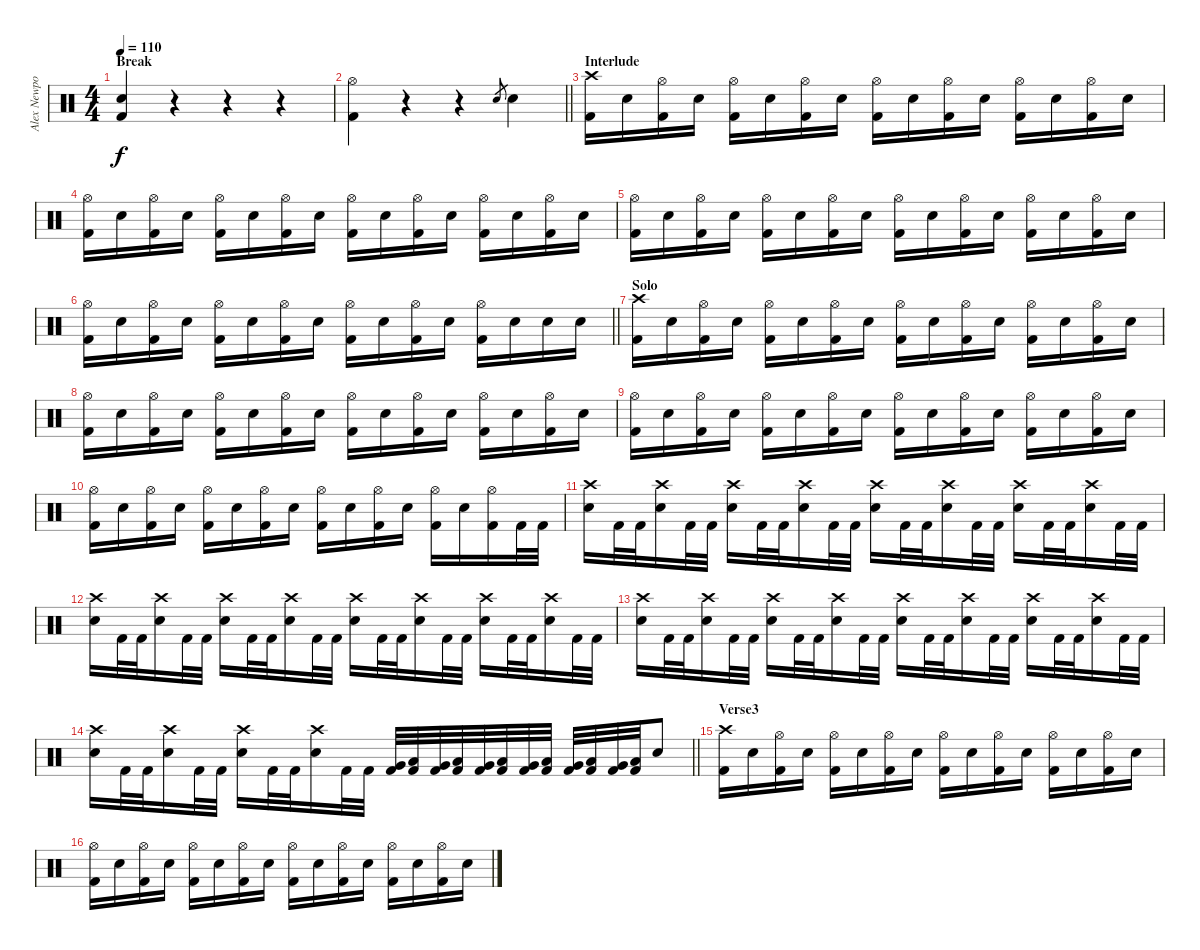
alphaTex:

\track ("Alex Newport" "Alex Newpo") {instrument percussion}
\staff {score}
\articulation defaults
\ts (4 4)
\section ("" "Break")
\tempo 110
\clef neutral
\ks c
("Electric Snare (hit)" "Kick (hit) 2").4{dy f} r.4 r.4 r.4 |
\barLineRight lightlight
("Hi-Hat (open)" "Kick (hit) 2").4 r.4 r.4 "Electric Snare (hit)".8{gr} "Electric Snare (hit)".4 |
\section ("" "Interlude")
("Crash high (hit)" "Kick (hit) 2").16 "Electric Snare (hit)".16 ("Hi-Hat (open)" "Kick (hit) 2").16 "Electric Snare (hit)".16 ("Hi-Hat (open)" "Kick (hit) 2").16 "Electric Snare (hit)".16 ("Hi-Hat (open)" "Kick (hit) 2").16 "Electric Snare (hit)".16 ("Hi-Hat (open)" "Kick (hit) 2").16 "Electric Snare (hit)".16 ("Hi-Hat (open)" "Kick (hit) 2").16 "Electric Snare (hit)".16 ("Hi-Hat (open)" "Kick (hit) 2").16 "Electric Snare (hit)".16 ("Hi-Hat (open)" "Kick (hit) 2").16 "Electric Snare (hit)".16 |
("Hi-Hat (open)" "Kick (hit) 2").16 "Electric Snare (hit)".16 ("Hi-Hat (open)" "Kick (hit) 2").16 "Electric Snare (hit)".16 ("Hi-Hat (open)" "Kick (hit) 2").16 "Electric Snare (hit)".16 ("Hi-Hat (open)" "Kick (hit) 2").16 "Electric Snare (hit)".16 ("Hi-Hat (open)" "Kick (hit) 2").16 "Electric Snare (hit)".16 ("Hi-Hat (open)" "Kick (hit) 2").16 "Electric Snare (hit)".16 ("Hi-Hat (open)" "Kick (hit) 2").16 "Electric Snare (hit)".16 ("Hi-Hat (open)" "Kick (hit) 2").16 "Electric Snare (hit)".16 |
("Hi-Hat (open)" "Kick (hit) 2").16 "Electric Snare (hit)".16 ("Hi-Hat (open)" "Kick (hit) 2").16 "Electric Snare (hit)".16 ("Hi-Hat (open)" "Kick (hit) 2").16 "Electric Snare (hit)".16 ("Hi-Hat (open)" "Kick (hit) 2").16 "Electric Snare (hit)".16 ("Hi-Hat (open)" "Kick (hit) 2").16 "Electric Snare (hit)".16 ("Hi-Hat (open)" "Kick (hit) 2").16 "Electric Snare (hit)".16 ("Hi-Hat (open)" "Kick (hit) 2").16 "Electric Snare (hit)".16 ("Hi-Hat (open)" "Kick (hit) 2").16 "Electric Snare (hit)".16 |
\barLineRight lightlight
("Hi-Hat (open)" "Kick (hit) 2").16 "Electric Snare (hit)".16 ("Hi-Hat (open)" "Kick (hit) 2").16 "Electric Snare (hit)".16 ("Hi-Hat (open)" "Kick (hit) 2").16 "Electric Snare (hit)".16 ("Hi-Hat (open)" "Kick (hit) 2").16 "Electric Snare (hit)".16 ("Hi-Hat (open)" "Kick (hit) 2").16 "Electric Snare (hit)".16 ("Hi-Hat (open)" "Kick (hit) 2").16 "Electric Snare (hit)".16 ("Hi-Hat (open)" "Kick (hit) 2").16 "Electric Snare (hit)".16 "Electric Snare (hit)".16 "Electric Snare (hit)".16 |
\section ("" "Solo")
("Crash high (hit)" "Kick (hit) 2").16 "Electric Snare (hit)".16 ("Hi-Hat (open)" "Kick (hit) 2").16 "Electric Snare (hit)".16 ("Hi-Hat (open)" "Kick (hit) 2").16 "Electric Snare (hit)".16 ("Hi-Hat (open)" "Kick (hit) 2").16 "Electric Snare (hit)".16 ("Hi-Hat (open)" "Kick (hit) 2").16 "Electric Snare (hit)".16 ("Hi-Hat (open)" "Kick (hit) 2").16 "Electric Snare (hit)".16 ("Hi-Hat (open)" "Kick (hit) 2").16 "Electric Snare (hit)".16 ("Hi-Hat (open)" "Kick (hit) 2").16 "Electric Snare (hit)".16 |
("Hi-Hat (open)" "Kick (hit) 2").16 "Electric Snare (hit)".16 ("Hi-Hat (open)" "Kick (hit) 2").16 "Electric Snare (hit)".16 ("Hi-Hat (open)" "Kick (hit) 2").16 "Electric Snare (hit)".16 ("Hi-Hat (open)" "Kick (hit) 2").16 "Electric Snare (hit)".16 ("Hi-Hat (open)" "Kick (hit) 2").16 "Electric Snare (hit)".16 ("Hi-Hat (open)" "Kick (hit) 2").16 "Electric Snare (hit)".16 ("Hi-Hat (open)" "Kick (hit) 2").16 "Electric Snare (hit)".16 ("Hi-Hat (open)" "Kick (hit) 2").16 "Electric Snare (hit)".16 |
("Hi-Hat (open)" "Kick (hit) 2").16 "Electric Snare (hit)".16 ("Hi-Hat (open)" "Kick (hit) 2").16 "Electric Snare (hit)".16 ("Hi-Hat (open)" "Kick (hit) 2").16 "Electric Snare (hit)".16 ("Hi-Hat (open)" "Kick (hit) 2").16 "Electric Snare (hit)".16 ("Hi-Hat (open)" "Kick (hit) 2").16 "Electric Snare (hit)".16 ("Hi-Hat (open)" "Kick (hit) 2").16 "Electric Snare (hit)".16 ("Hi-Hat (open)" "Kick (hit) 2").16 "Electric Snare (hit)".16 ("Hi-Hat (open)" "Kick (hit) 2").16 "Electric Snare (hit)".16 |
("Hi-Hat (open)" "Kick (hit) 2").16 "Electric Snare (hit)".16 ("Hi-Hat (open)" "Kick (hit) 2").16 "Electric Snare (hit)".16 ("Hi-Hat (open)" "Kick (hit) 2").16 "Electric Snare (hit)".16 ("Hi-Hat (open)" "Kick (hit) 2").16 "Electric Snare (hit)".16 ("Hi-Hat (open)" "Kick (hit) 2").16 "Electric Snare (hit)".16 ("Hi-Hat (open)" "Kick (hit) 2").16 "Electric Snare (hit)".16 ("Hi-Hat (open)" "Kick (hit) 2").16 "Electric Snare (hit)".16 ("Hi-Hat (open)" "Kick (hit) 2").16 "Kick (hit) 2".32 "Kick (hit) 2".32 |
("Crash high (hit)" "Electric Snare (hit)").16 "Kick (hit) 2".32 "Kick (hit) 2".32 ("Crash high (hit)" "Electric Snare (hit)").16 "Kick (hit) 2".32 "Kick (hit) 2".32 ("Crash high (hit)" "Electric Snare (hit)").16 "Kick (hit) 2".32 "Kick (hit) 2".32 ("Crash high (hit)" "Electric Snare (hit)").16 "Kick (hit) 2".32 "Kick (hit) 2".32 ("Crash high (hit)" "Electric Snare (hit)").16 "Kick (hit) 2".32 "Kick (hit) 2".32 ("Crash high (hit)" "Electric Snare (hit)").16 "Kick (hit) 2".32 "Kick (hit) 2".32 ("Crash high (hit)" "Electric Snare (hit)").16 "Kick (hit) 2".32 "Kick (hit) 2".32 ("Crash high (hit)" "Electric Snare (hit)").16 "Kick (hit) 2".32 "Kick (hit) 2".32 |
("Crash high (hit)" "Electric Snare (hit)").16 "Kick (hit) 2".32 "Kick (hit) 2".32 ("Crash high (hit)" "Electric Snare (hit)").16 "Kick (hit) 2".32 "Kick (hit) 2".32 ("Crash high (hit)" "Electric Snare (hit)").16 "Kick (hit) 2".32 "Kick (hit) 2".32 ("Crash high (hit)" "Electric Snare (hit)").16 "Kick (hit) 2".32 "Kick (hit) 2".32 ("Crash high (hit)" "Electric Snare (hit)").16 "Kick (hit) 2".32 "Kick (hit) 2".32 ("Crash high (hit)" "Electric Snare (hit)").16 "Kick (hit) 2".32 "Kick (hit) 2".32 ("Crash high (hit)" "Electric Snare (hit)").16 "Kick (hit) 2".32 "Kick (hit) 2".32 ("Crash high (hit)" "Electric Snare (hit)").16 "Kick (hit) 2".32 "Kick (hit) 2".32 |
("Crash high (hit)" "Electric Snare (hit)").16 "Kick (hit) 2".32 "Kick (hit) 2".32 ("Crash high (hit)" "Electric Snare (hit)").16 "Kick (hit) 2".32 "Kick (hit) 2".32 ("Crash high (hit)" "Electric Snare (hit)").16 "Kick (hit) 2".32 "Kick (hit) 2".32 ("Crash high (hit)" "Electric Snare (hit)").16 "Kick (hit) 2".32 "Kick (hit) 2".32 ("Crash high (hit)" "Electric Snare (hit)").16 "Kick (hit) 2".32 "Kick (hit) 2".32 ("Crash high (hit)" "Electric Snare (hit)").16 "Kick (hit) 2".32 "Kick (hit) 2".32 ("Crash high (hit)" "Electric Snare (hit)").16 "Kick (hit) 2".32 "Kick (hit) 2".32 ("Crash high (hit)" "Electric Snare (hit)").16 "Kick (hit) 2".32 "Kick (hit) 2".32 |
\barLineRight lightlight
("Crash high (hit)" "Electric Snare (hit)").16 "Kick (hit) 2".32 "Kick (hit) 2".32 ("Crash high (hit)" "Electric Snare (hit)").16 "Kick (hit) 2".32 "Kick (hit) 2".32 ("Crash high (hit)" "Electric Snare (hit)").16 "Kick (hit) 2".32 "Kick (hit) 2".32 ("Crash high (hit)" "Electric Snare (hit)").16 "Kick (hit) 2".32 "Kick (hit) 2".32 ("Very Low Tom (hit)" "Kick (hit) 2").32 ("Low Floor Tom (hit)" "Kick (hit) 2").32 ("Very Low Tom (hit)" "Kick (hit) 2").32 ("Low Floor Tom (hit)" "Kick (hit) 2").32 ("Very Low Tom (hit)" "Kick (hit) 2").32 ("Low Floor Tom (hit)" "Kick (hit) 2").32 ("Very Low Tom (hit)" "Kick (hit) 2").32 ("Low Floor Tom (hit)" "Kick (hit) 2").32 ("Very Low Tom (hit)" "Kick (hit) 2").32 ("Low Floor Tom (hit)" "Kick (hit) 2").32 ("Very Low Tom (hit)" "Kick (hit) 2").32 ("Low Floor Tom (hit)" "Kick (hit) 2").32 "Electric Snare (hit)".8 |
\section ("" "Verse3")
("Crash high (hit)" "Kick (hit) 2").16 "Electric Snare (hit)".16 ("Hi-Hat (open)" "Kick (hit) 2").16 "Electric Snare (hit)".16 ("Hi-Hat (open)" "Kick (hit) 2").16 "Electric Snare (hit)".16 ("Hi-Hat (open)" "Kick (hit) 2").16 "Electric Snare (hit)".16 ("Hi-Hat (open)" "Kick (hit) 2").16 "Electric Snare (hit)".16 ("Hi-Hat (open)" "Kick (hit) 2").16 "Electric Snare (hit)".16 ("Hi-Hat (open)" "Kick (hit) 2").16 "Electric Snare (hit)".16 ("Hi-Hat (open)" "Kick (hit) 2").16 "Electric Snare (hit)".16 |
("Hi-Hat (open)" "Kick (hit) 2").16 "Electric Snare (hit)".16 ("Hi-Hat (open)" "Kick (hit) 2").16 "Electric Snare (hit)".16 ("Hi-Hat (open)" "Kick (hit) 2").16 "Electric Snare (hit)".16 ("Hi-Hat (open)" "Kick (hit) 2").16 "Electric Snare (hit)".16 ("Hi-Hat (open)" "Kick (hit) 2").16 "Electric Snare (hit)".16 ("Hi-Hat (open)" "Kick (hit) 2").16 "Electric Snare (hit)".16 ("Hi-Hat (open)" "Kick (hit) 2").16 "Electric Snare (hit)".16 ("Hi-Hat (open)" "Kick (hit) 2").16 "Electric Snare (hit)".16
